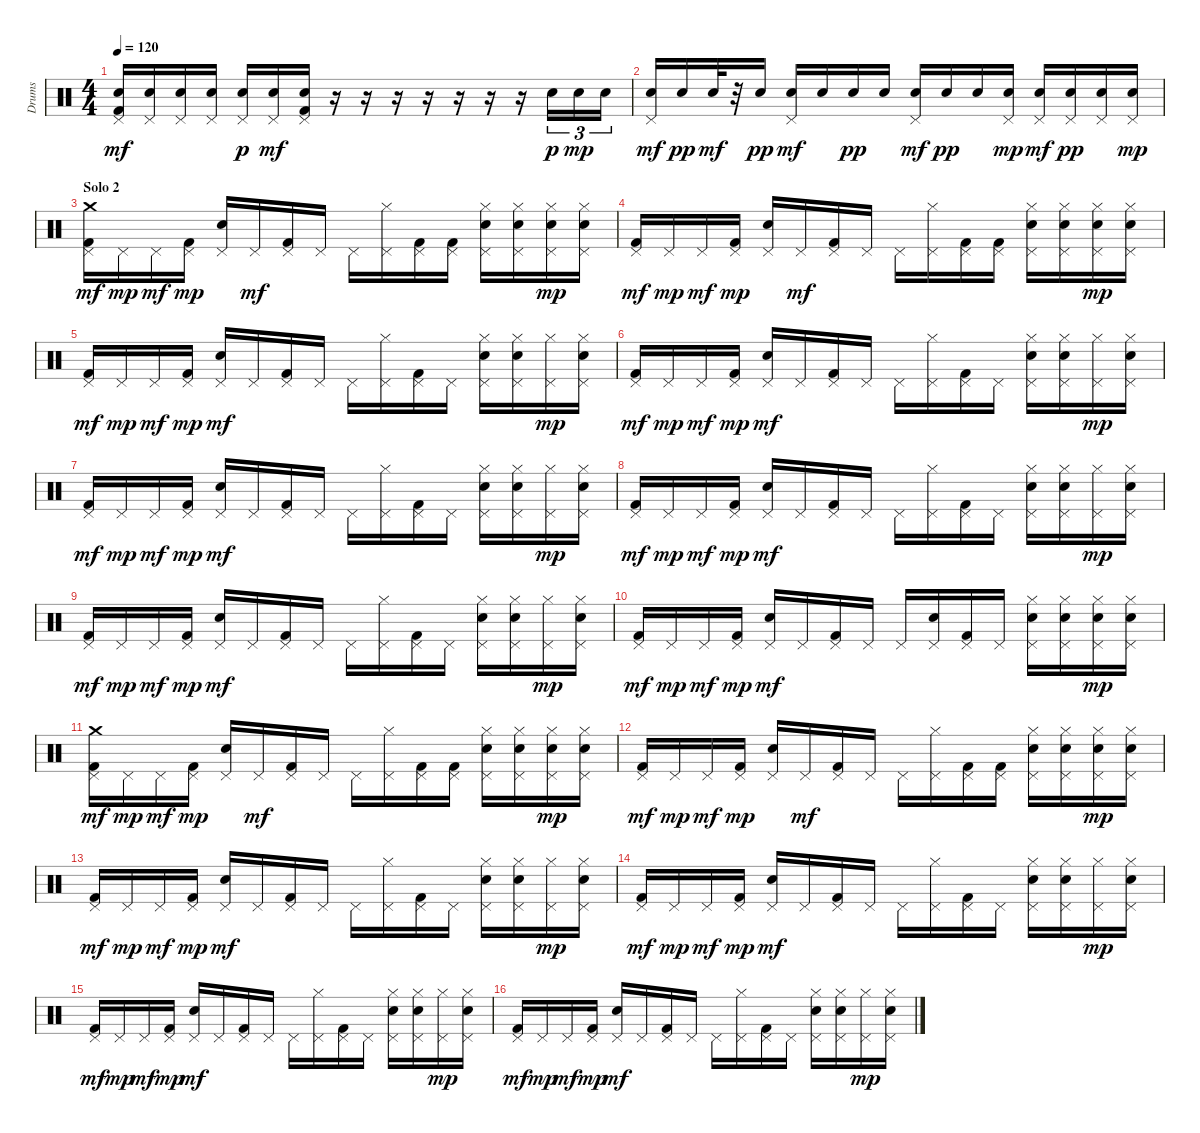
\track ("Drums" "Drums") {instrument percussion}
\staff {score}
\articulation defaults
\ts (4 4)
\tempo 120
\clef neutral
\ks c
("Electric Snare (hit)" "Pedal Hi-Hat (hit)" "Kick (hit) 2").16{dy mf} ("Electric Snare (hit)" "Pedal Hi-Hat (hit)").16 ("Electric Snare (hit)" "Pedal Hi-Hat (hit)").16 ("Electric Snare (hit)" "Pedal Hi-Hat (hit)").16 ("Pedal Hi-Hat (hit)" "Electric Snare (hit)").16{dy p} ("Electric Snare (hit)" "Pedal Hi-Hat (hit)").16{dy mf} ("Electric Snare (hit)" "Pedal Hi-Hat (hit)" "Kick (hit) 2").16 r.16 r.16 r.16 r.16 r.16 r.16 r.16 "Electric Snare (hit)".16{tu (3 2) dy p} "Electric Snare (hit)".16{tu (3 2) dy mp} "Electric Snare (hit)".16{tu (3 2)} |
("Pedal Hi-Hat (hit)" "Electric Snare (hit)").16{dy mf} "Electric Snare (hit)".16{dy pp} "Electric Snare (hit)".32{dy mf} r.32 "Electric Snare (hit)".16{dy pp} ("Electric Snare (hit)" "Pedal Hi-Hat (hit)").16{dy mf} "Electric Snare (hit)".16 "Electric Snare (hit)".16{dy pp} "Electric Snare (hit)".16 ("Pedal Hi-Hat (hit)" "Electric Snare (hit)").16{dy mf} "Electric Snare (hit)".16{dy pp} "Electric Snare (hit)".16 ("Pedal Hi-Hat (hit)" "Electric Snare (hit)").16{dy mp} ("Pedal Hi-Hat (hit)" "Electric Snare (hit)").16{dy mf} ("Pedal Hi-Hat (hit)" "Electric Snare (hit)").16{dy pp} ("Pedal Hi-Hat (hit)" "Electric Snare (hit)").16 ("Pedal Hi-Hat (hit)" "Electric Snare (hit)").16{dy mp} |
\section ("" "Solo 2")
("Pedal Hi-Hat (hit)" "Crash medium (hit)" "Kick (hit) 2").16{dy mf} "Pedal Hi-Hat (hit)".16{dy mp} "Pedal Hi-Hat (hit)".16{dy mf} ("Pedal Hi-Hat (hit)" "Kick (hit) 2").16{dy mp} ("Pedal Hi-Hat (hit)" "Electric Snare (hit)").16 "Pedal Hi-Hat (hit)".16{dy mf} ("Pedal Hi-Hat (hit)" "Kick (hit) 2").16 "Pedal Hi-Hat (hit)".16 "Pedal Hi-Hat (hit)".16 ("Pedal Hi-Hat (hit)" "Hi-Hat (closed)").16 ("Pedal Hi-Hat (hit)" "Kick (hit) 2").16 ("Pedal Hi-Hat (hit)" "Kick (hit) 2").16 ("Pedal Hi-Hat (hit)" "Electric Snare (hit)" "Hi-Hat (closed)").16 ("Pedal Hi-Hat (hit)" "Electric Snare (hit)" "Hi-Hat (closed)").16 ("Pedal Hi-Hat (hit)" "Electric Snare (hit)" "Hi-Hat (closed)").16{dy mp} ("Pedal Hi-Hat (hit)" "Electric Snare (hit)" "Hi-Hat (closed)").16 |
("Pedal Hi-Hat (hit)" "Kick (hit) 2").16{dy mf} "Pedal Hi-Hat (hit)".16{dy mp} "Pedal Hi-Hat (hit)".16{dy mf} ("Pedal Hi-Hat (hit)" "Kick (hit) 2").16{dy mp} ("Pedal Hi-Hat (hit)" "Electric Snare (hit)").16 "Pedal Hi-Hat (hit)".16{dy mf} ("Pedal Hi-Hat (hit)" "Kick (hit) 2").16 "Pedal Hi-Hat (hit)".16 "Pedal Hi-Hat (hit)".16 ("Pedal Hi-Hat (hit)" "Hi-Hat (closed)").16 ("Pedal Hi-Hat (hit)" "Kick (hit) 2").16 ("Pedal Hi-Hat (hit)" "Kick (hit) 2").16 ("Pedal Hi-Hat (hit)" "Electric Snare (hit)" "Hi-Hat (closed)").16 ("Pedal Hi-Hat (hit)" "Electric Snare (hit)" "Hi-Hat (closed)").16 ("Pedal Hi-Hat (hit)" "Electric Snare (hit)" "Hi-Hat (closed)").16{dy mp} ("Pedal Hi-Hat (hit)" "Electric Snare (hit)" "Hi-Hat (closed)").16 |
("Pedal Hi-Hat (hit)" "Kick (hit) 2").16{dy mf} "Pedal Hi-Hat (hit)".16{dy mp} "Pedal Hi-Hat (hit)".16{dy mf} ("Pedal Hi-Hat (hit)" "Kick (hit) 2").16{dy mp} ("Pedal Hi-Hat (hit)" "Electric Snare (hit)").16{dy mf} "Pedal Hi-Hat (hit)".16 ("Pedal Hi-Hat (hit)" "Kick (hit) 2").16 "Pedal Hi-Hat (hit)".16 "Pedal Hi-Hat (hit)".16 ("Pedal Hi-Hat (hit)" "Hi-Hat (closed)").16 ("Pedal Hi-Hat (hit)" "Kick (hit) 2").16 "Pedal Hi-Hat (hit)".16 ("Pedal Hi-Hat (hit)" "Electric Snare (hit)" "Hi-Hat (closed)").16 ("Pedal Hi-Hat (hit)" "Electric Snare (hit)" "Hi-Hat (closed)").16 ("Pedal Hi-Hat (hit)" "Hi-Hat (closed)").16{dy mp} ("Pedal Hi-Hat (hit)" "Electric Snare (hit)" "Hi-Hat (closed)").16 |
("Pedal Hi-Hat (hit)" "Kick (hit) 2").16{dy mf} "Pedal Hi-Hat (hit)".16{dy mp} "Pedal Hi-Hat (hit)".16{dy mf} ("Pedal Hi-Hat (hit)" "Kick (hit) 2").16{dy mp} ("Pedal Hi-Hat (hit)" "Electric Snare (hit)").16{dy mf} "Pedal Hi-Hat (hit)".16 ("Pedal Hi-Hat (hit)" "Kick (hit) 2").16 "Pedal Hi-Hat (hit)".16 "Pedal Hi-Hat (hit)".16 ("Pedal Hi-Hat (hit)" "Hi-Hat (closed)").16 ("Pedal Hi-Hat (hit)" "Kick (hit) 2").16 "Pedal Hi-Hat (hit)".16 ("Pedal Hi-Hat (hit)" "Electric Snare (hit)" "Hi-Hat (closed)").16 ("Pedal Hi-Hat (hit)" "Electric Snare (hit)" "Hi-Hat (closed)").16 ("Pedal Hi-Hat (hit)" "Hi-Hat (closed)").16{dy mp} ("Pedal Hi-Hat (hit)" "Electric Snare (hit)" "Hi-Hat (closed)").16 |
("Pedal Hi-Hat (hit)" "Kick (hit) 2").16{dy mf} "Pedal Hi-Hat (hit)".16{dy mp} "Pedal Hi-Hat (hit)".16{dy mf} ("Pedal Hi-Hat (hit)" "Kick (hit) 2").16{dy mp} ("Pedal Hi-Hat (hit)" "Electric Snare (hit)").16{dy mf} "Pedal Hi-Hat (hit)".16 ("Pedal Hi-Hat (hit)" "Kick (hit) 2").16 "Pedal Hi-Hat (hit)".16 "Pedal Hi-Hat (hit)".16 ("Pedal Hi-Hat (hit)" "Hi-Hat (closed)").16 ("Pedal Hi-Hat (hit)" "Kick (hit) 2").16 "Pedal Hi-Hat (hit)".16 ("Pedal Hi-Hat (hit)" "Electric Snare (hit)" "Hi-Hat (closed)").16 ("Pedal Hi-Hat (hit)" "Electric Snare (hit)" "Hi-Hat (closed)").16 ("Pedal Hi-Hat (hit)" "Hi-Hat (closed)").16{dy mp} ("Pedal Hi-Hat (hit)" "Electric Snare (hit)" "Hi-Hat (closed)").16 |
("Pedal Hi-Hat (hit)" "Kick (hit) 2").16{dy mf} "Pedal Hi-Hat (hit)".16{dy mp} "Pedal Hi-Hat (hit)".16{dy mf} ("Pedal Hi-Hat (hit)" "Kick (hit) 2").16{dy mp} ("Pedal Hi-Hat (hit)" "Electric Snare (hit)").16{dy mf} "Pedal Hi-Hat (hit)".16 ("Pedal Hi-Hat (hit)" "Kick (hit) 2").16 "Pedal Hi-Hat (hit)".16 "Pedal Hi-Hat (hit)".16 ("Pedal Hi-Hat (hit)" "Hi-Hat (closed)").16 ("Pedal Hi-Hat (hit)" "Kick (hit) 2").16 "Pedal Hi-Hat (hit)".16 ("Pedal Hi-Hat (hit)" "Electric Snare (hit)" "Hi-Hat (closed)").16 ("Pedal Hi-Hat (hit)" "Electric Snare (hit)" "Hi-Hat (closed)").16 ("Pedal Hi-Hat (hit)" "Hi-Hat (closed)").16{dy mp} ("Pedal Hi-Hat (hit)" "Electric Snare (hit)" "Hi-Hat (closed)").16 |
("Pedal Hi-Hat (hit)" "Kick (hit) 2").16{dy mf} "Pedal Hi-Hat (hit)".16{dy mp} "Pedal Hi-Hat (hit)".16{dy mf} ("Pedal Hi-Hat (hit)" "Kick (hit) 2").16{dy mp} ("Pedal Hi-Hat (hit)" "Electric Snare (hit)").16{dy mf} "Pedal Hi-Hat (hit)".16 ("Pedal Hi-Hat (hit)" "Kick (hit) 2").16 "Pedal Hi-Hat (hit)".16 "Pedal Hi-Hat (hit)".16 ("Pedal Hi-Hat (hit)" "Hi-Hat (closed)").16 ("Pedal Hi-Hat (hit)" "Kick (hit) 2").16 "Pedal Hi-Hat (hit)".16 ("Pedal Hi-Hat (hit)" "Electric Snare (hit)" "Hi-Hat (closed)").16 ("Pedal Hi-Hat (hit)" "Electric Snare (hit)" "Hi-Hat (closed)").16 ("Pedal Hi-Hat (hit)" "Hi-Hat (closed)").16{dy mp} ("Pedal Hi-Hat (hit)" "Electric Snare (hit)" "Hi-Hat (closed)").16 |
("Pedal Hi-Hat (hit)" "Kick (hit) 2").16{dy mf} "Pedal Hi-Hat (hit)".16{dy mp} "Pedal Hi-Hat (hit)".16{dy mf} ("Pedal Hi-Hat (hit)" "Kick (hit) 2").16{dy mp} ("Pedal Hi-Hat (hit)" "Electric Snare (hit)").16{dy mf} "Pedal Hi-Hat (hit)".16 ("Pedal Hi-Hat (hit)" "Kick (hit) 2").16 "Pedal Hi-Hat (hit)".16 "Pedal Hi-Hat (hit)".16 ("Pedal Hi-Hat (hit)" "Electric Snare (hit)").16 ("Pedal Hi-Hat (hit)" "Kick (hit) 2").16 "Pedal Hi-Hat (hit)".16 ("Pedal Hi-Hat (hit)" "Electric Snare (hit)" "Hi-Hat (closed)").16 ("Pedal Hi-Hat (hit)" "Electric Snare (hit)" "Hi-Hat (closed)").16 ("Pedal Hi-Hat (hit)" "Electric Snare (hit)" "Hi-Hat (closed)").16{dy mp} ("Pedal Hi-Hat (hit)" "Electric Snare (hit)" "Hi-Hat (closed)").16 |
("Pedal Hi-Hat (hit)" "Crash medium (hit)" "Kick (hit) 2").16{dy mf} "Pedal Hi-Hat (hit)".16{dy mp} "Pedal Hi-Hat (hit)".16{dy mf} ("Pedal Hi-Hat (hit)" "Kick (hit) 2").16{dy mp} ("Pedal Hi-Hat (hit)" "Electric Snare (hit)").16 "Pedal Hi-Hat (hit)".16{dy mf} ("Pedal Hi-Hat (hit)" "Kick (hit) 2").16 "Pedal Hi-Hat (hit)".16 "Pedal Hi-Hat (hit)".16 ("Pedal Hi-Hat (hit)" "Hi-Hat (closed)").16 ("Pedal Hi-Hat (hit)" "Kick (hit) 2").16 ("Pedal Hi-Hat (hit)" "Kick (hit) 2").16 ("Pedal Hi-Hat (hit)" "Electric Snare (hit)" "Hi-Hat (closed)").16 ("Pedal Hi-Hat (hit)" "Electric Snare (hit)" "Hi-Hat (closed)").16 ("Pedal Hi-Hat (hit)" "Electric Snare (hit)" "Hi-Hat (closed)").16{dy mp} ("Pedal Hi-Hat (hit)" "Electric Snare (hit)" "Hi-Hat (closed)").16 |
("Pedal Hi-Hat (hit)" "Kick (hit) 2").16{dy mf} "Pedal Hi-Hat (hit)".16{dy mp} "Pedal Hi-Hat (hit)".16{dy mf} ("Pedal Hi-Hat (hit)" "Kick (hit) 2").16{dy mp} ("Pedal Hi-Hat (hit)" "Electric Snare (hit)").16 "Pedal Hi-Hat (hit)".16{dy mf} ("Pedal Hi-Hat (hit)" "Kick (hit) 2").16 "Pedal Hi-Hat (hit)".16 "Pedal Hi-Hat (hit)".16 ("Pedal Hi-Hat (hit)" "Hi-Hat (closed)").16 ("Pedal Hi-Hat (hit)" "Kick (hit) 2").16 ("Pedal Hi-Hat (hit)" "Kick (hit) 2").16 ("Pedal Hi-Hat (hit)" "Electric Snare (hit)" "Hi-Hat (closed)").16 ("Pedal Hi-Hat (hit)" "Electric Snare (hit)" "Hi-Hat (closed)").16 ("Pedal Hi-Hat (hit)" "Electric Snare (hit)" "Hi-Hat (closed)").16{dy mp} ("Pedal Hi-Hat (hit)" "Electric Snare (hit)" "Hi-Hat (closed)").16 |
("Pedal Hi-Hat (hit)" "Kick (hit) 2").16{dy mf} "Pedal Hi-Hat (hit)".16{dy mp} "Pedal Hi-Hat (hit)".16{dy mf} ("Pedal Hi-Hat (hit)" "Kick (hit) 2").16{dy mp} ("Pedal Hi-Hat (hit)" "Electric Snare (hit)").16{dy mf} "Pedal Hi-Hat (hit)".16 ("Pedal Hi-Hat (hit)" "Kick (hit) 2").16 "Pedal Hi-Hat (hit)".16 "Pedal Hi-Hat (hit)".16 ("Pedal Hi-Hat (hit)" "Hi-Hat (closed)").16 ("Pedal Hi-Hat (hit)" "Kick (hit) 2").16 "Pedal Hi-Hat (hit)".16 ("Pedal Hi-Hat (hit)" "Electric Snare (hit)" "Hi-Hat (closed)").16 ("Pedal Hi-Hat (hit)" "Electric Snare (hit)" "Hi-Hat (closed)").16 ("Pedal Hi-Hat (hit)" "Hi-Hat (closed)").16{dy mp} ("Pedal Hi-Hat (hit)" "Electric Snare (hit)" "Hi-Hat (closed)").16 |
("Pedal Hi-Hat (hit)" "Kick (hit) 2").16{dy mf} "Pedal Hi-Hat (hit)".16{dy mp} "Pedal Hi-Hat (hit)".16{dy mf} ("Pedal Hi-Hat (hit)" "Kick (hit) 2").16{dy mp} ("Pedal Hi-Hat (hit)" "Electric Snare (hit)").16{dy mf} "Pedal Hi-Hat (hit)".16 ("Pedal Hi-Hat (hit)" "Kick (hit) 2").16 "Pedal Hi-Hat (hit)".16 "Pedal Hi-Hat (hit)".16 ("Pedal Hi-Hat (hit)" "Hi-Hat (closed)").16 ("Pedal Hi-Hat (hit)" "Kick (hit) 2").16 "Pedal Hi-Hat (hit)".16 ("Pedal Hi-Hat (hit)" "Electric Snare (hit)" "Hi-Hat (closed)").16 ("Pedal Hi-Hat (hit)" "Electric Snare (hit)" "Hi-Hat (closed)").16 ("Pedal Hi-Hat (hit)" "Hi-Hat (closed)").16{dy mp} ("Pedal Hi-Hat (hit)" "Electric Snare (hit)" "Hi-Hat (closed)").16 |
("Pedal Hi-Hat (hit)" "Kick (hit) 2").16{dy mf} "Pedal Hi-Hat (hit)".16{dy mp} "Pedal Hi-Hat (hit)".16{dy mf} ("Pedal Hi-Hat (hit)" "Kick (hit) 2").16{dy mp} ("Pedal Hi-Hat (hit)" "Electric Snare (hit)").16{dy mf} "Pedal Hi-Hat (hit)".16 ("Pedal Hi-Hat (hit)" "Kick (hit) 2").16 "Pedal Hi-Hat (hit)".16 "Pedal Hi-Hat (hit)".16 ("Pedal Hi-Hat (hit)" "Hi-Hat (closed)").16 ("Pedal Hi-Hat (hit)" "Kick (hit) 2").16 "Pedal Hi-Hat (hit)".16 ("Pedal Hi-Hat (hit)" "Electric Snare (hit)" "Hi-Hat (closed)").16 ("Pedal Hi-Hat (hit)" "Electric Snare (hit)" "Hi-Hat (closed)").16 ("Pedal Hi-Hat (hit)" "Hi-Hat (closed)").16{dy mp} ("Pedal Hi-Hat (hit)" "Electric Snare (hit)" "Hi-Hat (closed)").16 |
("Pedal Hi-Hat (hit)" "Kick (hit) 2").16{dy mf} "Pedal Hi-Hat (hit)".16{dy mp} "Pedal Hi-Hat (hit)".16{dy mf} ("Pedal Hi-Hat (hit)" "Kick (hit) 2").16{dy mp} ("Pedal Hi-Hat (hit)" "Electric Snare (hit)").16{dy mf} "Pedal Hi-Hat (hit)".16 ("Pedal Hi-Hat (hit)" "Kick (hit) 2").16 "Pedal Hi-Hat (hit)".16 "Pedal Hi-Hat (hit)".16 ("Pedal Hi-Hat (hit)" "Hi-Hat (closed)").16 ("Pedal Hi-Hat (hit)" "Kick (hit) 2").16 "Pedal Hi-Hat (hit)".16 ("Pedal Hi-Hat (hit)" "Electric Snare (hit)" "Hi-Hat (closed)").16 ("Pedal Hi-Hat (hit)" "Electric Snare (hit)" "Hi-Hat (closed)").16 ("Pedal Hi-Hat (hit)" "Hi-Hat (closed)").16{dy mp} ("Pedal Hi-Hat (hit)" "Electric Snare (hit)" "Hi-Hat (closed)").16
